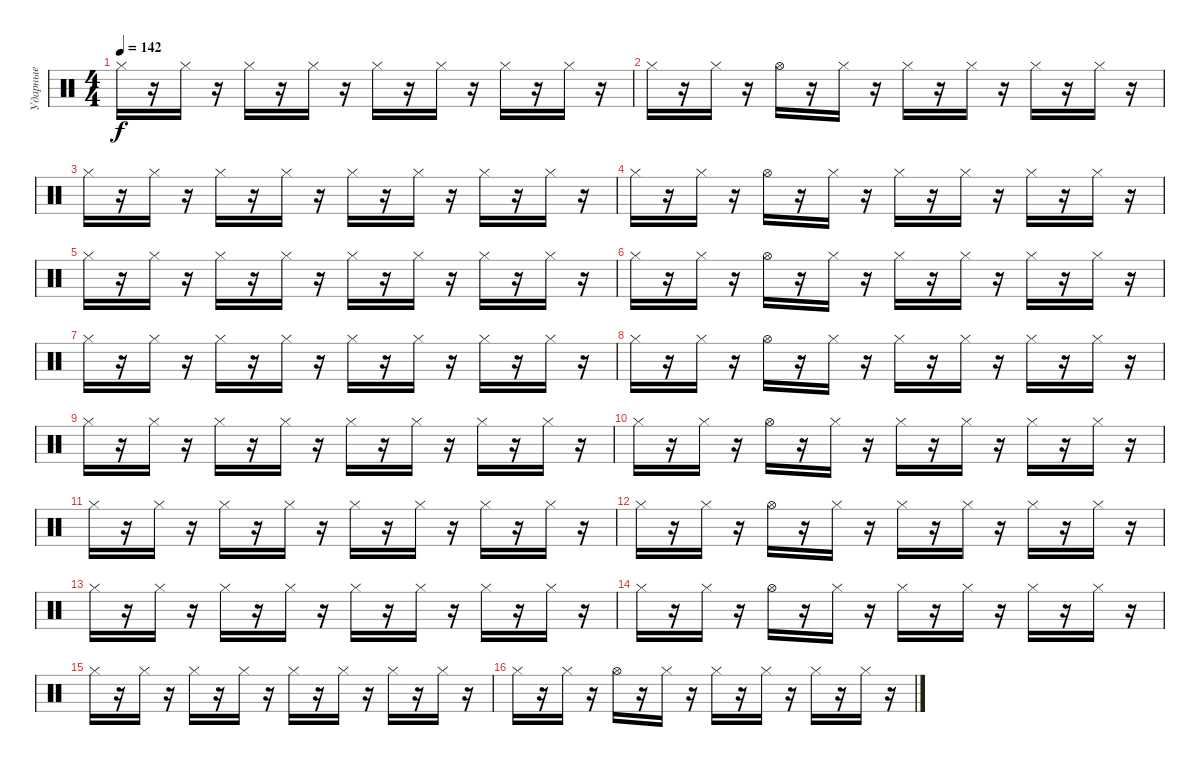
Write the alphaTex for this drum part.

\track ("Ударные" "Ударные") {instrument percussion}
\staff {score}
\articulation defaults
\ts (4 4)
\tempo 142
\clef neutral
\ks c "Hi-Hat (closed)".16{dy f}
r.16 "Hi-Hat (closed)".16 r.16 "Hi-Hat (closed)".16 r.16 "Hi-Hat (closed)".16 r.16 "Hi-Hat (closed)".16 r.16 "Hi-Hat (closed)".16 r.16 "Hi-Hat (closed)".16 r.16 "Hi-Hat (closed)".16 r.16 |
"Hi-Hat (closed)".16 r.16 "Hi-Hat (closed)".16 r.16 "Hi-Hat (open)".16 r.16 "Hi-Hat (closed)".16 r.16 "Hi-Hat (closed)".16 r.16 "Hi-Hat (closed)".16 r.16 "Hi-Hat (closed)".16 r.16 "Hi-Hat (closed)".16 r.16 |
"Hi-Hat (closed)".16 r.16 "Hi-Hat (closed)".16 r.16 "Hi-Hat (closed)".16 r.16 "Hi-Hat (closed)".16 r.16 "Hi-Hat (closed)".16 r.16 "Hi-Hat (closed)".16 r.16 "Hi-Hat (closed)".16 r.16 "Hi-Hat (closed)".16 r.16 |
"Hi-Hat (closed)".16 r.16 "Hi-Hat (closed)".16 r.16 "Hi-Hat (open)".16 r.16 "Hi-Hat (closed)".16 r.16 "Hi-Hat (closed)".16 r.16 "Hi-Hat (closed)".16 r.16 "Hi-Hat (closed)".16 r.16 "Hi-Hat (closed)".16 r.16 |
"Hi-Hat (closed)".16 r.16 "Hi-Hat (closed)".16 r.16 "Hi-Hat (closed)".16 r.16 "Hi-Hat (closed)".16 r.16 "Hi-Hat (closed)".16 r.16 "Hi-Hat (closed)".16 r.16 "Hi-Hat (closed)".16 r.16 "Hi-Hat (closed)".16 r.16 |
"Hi-Hat (closed)".16 r.16 "Hi-Hat (closed)".16 r.16 "Hi-Hat (open)".16 r.16 "Hi-Hat (closed)".16 r.16 "Hi-Hat (closed)".16 r.16 "Hi-Hat (closed)".16 r.16 "Hi-Hat (closed)".16 r.16 "Hi-Hat (closed)".16 r.16 |
"Hi-Hat (closed)".16 r.16 "Hi-Hat (closed)".16 r.16 "Hi-Hat (closed)".16 r.16 "Hi-Hat (closed)".16 r.16 "Hi-Hat (closed)".16 r.16 "Hi-Hat (closed)".16 r.16 "Hi-Hat (closed)".16 r.16 "Hi-Hat (closed)".16 r.16 |
"Hi-Hat (closed)".16 r.16 "Hi-Hat (closed)".16 r.16 "Hi-Hat (open)".16 r.16 "Hi-Hat (closed)".16 r.16 "Hi-Hat (closed)".16 r.16 "Hi-Hat (closed)".16 r.16 "Hi-Hat (closed)".16 r.16 "Hi-Hat (closed)".16 r.16 |
"Hi-Hat (closed)".16 r.16 "Hi-Hat (closed)".16 r.16 "Hi-Hat (closed)".16 r.16 "Hi-Hat (closed)".16 r.16 "Hi-Hat (closed)".16 r.16 "Hi-Hat (closed)".16 r.16 "Hi-Hat (closed)".16 r.16 "Hi-Hat (closed)".16 r.16 |
"Hi-Hat (closed)".16 r.16 "Hi-Hat (closed)".16 r.16 "Hi-Hat (open)".16 r.16 "Hi-Hat (closed)".16 r.16 "Hi-Hat (closed)".16 r.16 "Hi-Hat (closed)".16 r.16 "Hi-Hat (closed)".16 r.16 "Hi-Hat (closed)".16 r.16 |
"Hi-Hat (closed)".16 r.16 "Hi-Hat (closed)".16 r.16 "Hi-Hat (closed)".16 r.16 "Hi-Hat (closed)".16 r.16 "Hi-Hat (closed)".16 r.16 "Hi-Hat (closed)".16 r.16 "Hi-Hat (closed)".16 r.16 "Hi-Hat (closed)".16 r.16 |
"Hi-Hat (closed)".16 r.16 "Hi-Hat (closed)".16 r.16 "Hi-Hat (open)".16 r.16 "Hi-Hat (closed)".16 r.16 "Hi-Hat (closed)".16 r.16 "Hi-Hat (closed)".16 r.16 "Hi-Hat (closed)".16 r.16 "Hi-Hat (closed)".16 r.16 |
"Hi-Hat (closed)".16 r.16 "Hi-Hat (closed)".16 r.16 "Hi-Hat (closed)".16 r.16 "Hi-Hat (closed)".16 r.16 "Hi-Hat (closed)".16 r.16 "Hi-Hat (closed)".16 r.16 "Hi-Hat (closed)".16 r.16 "Hi-Hat (closed)".16 r.16 |
"Hi-Hat (closed)".16 r.16 "Hi-Hat (closed)".16 r.16 "Hi-Hat (open)".16 r.16 "Hi-Hat (closed)".16 r.16 "Hi-Hat (closed)".16 r.16 "Hi-Hat (closed)".16 r.16 "Hi-Hat (closed)".16 r.16 "Hi-Hat (closed)".16 r.16 |
"Hi-Hat (closed)".16 r.16 "Hi-Hat (closed)".16 r.16 "Hi-Hat (closed)".16 r.16 "Hi-Hat (closed)".16 r.16 "Hi-Hat (closed)".16 r.16 "Hi-Hat (closed)".16 r.16 "Hi-Hat (closed)".16 r.16 "Hi-Hat (closed)".16 r.16 |
"Hi-Hat (closed)".16 r.16 "Hi-Hat (closed)".16 r.16 "Hi-Hat (open)".16 r.16 "Hi-Hat (closed)".16 r.16 "Hi-Hat (closed)".16 r.16 "Hi-Hat (closed)".16 r.16 "Hi-Hat (closed)".16 r.16 "Hi-Hat (closed)".16 r.16
